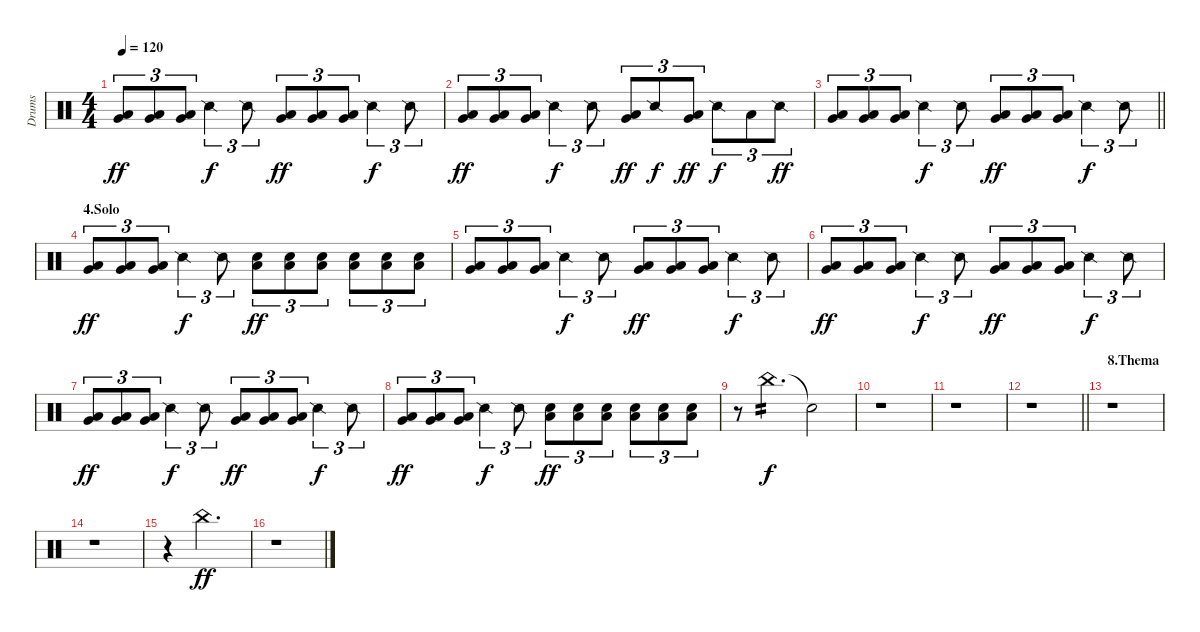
\track ("Drums" "Drums") {instrument percussion}
\staff {score}
\articulation defaults
\ts (4 4)
\tempo 120
\clef neutral
\ks c
("Very Low Tom (hit)" "Low Floor Tom (hit)").8{tu (3 2) dy ff} ("Very Low Tom (hit)" "Low Floor Tom (hit)").8{tu (3 2)} ("Very Low Tom (hit)" "Low Floor Tom (hit)").8{tu (3 2)} "Snare (side stick) 2".4{tu (3 2) dy f} "Snare (side stick) 2".8{tu (3 2)} ("Very Low Tom (hit)" "Low Floor Tom (hit)").8{tu (3 2) dy ff} ("Very Low Tom (hit)" "Low Floor Tom (hit)").8{tu (3 2)} ("Very Low Tom (hit)" "Low Floor Tom (hit)").8{tu (3 2)} "Snare (side stick) 2".4{tu (3 2) dy f} "Snare (side stick) 2".8{tu (3 2)} |
("Very Low Tom (hit)" "Low Floor Tom (hit)").8{tu (3 2) dy ff} ("Very Low Tom (hit)" "Low Floor Tom (hit)").8{tu (3 2)} ("Very Low Tom (hit)" "Low Floor Tom (hit)").8{tu (3 2)} "Snare (side stick) 2".4{tu (3 2) dy f} "Snare (side stick) 2".8{tu (3 2)} ("Very Low Tom (hit)" "Low Floor Tom (hit)").8{tu (3 2) dy ff} "Snare (side stick) 2".8{tu (3 2) dy f} ("Very Low Tom (hit)" "Low Floor Tom (hit)").8{tu (3 2) dy ff} "Snare (side stick) 2".8{tu (3 2) dy f} "Low Floor Tom (hit)".8{tu (3 2)} "Snare (side stick) 2".8{tu (3 2) dy ff} |
\barLineRight lightlight
("Very Low Tom (hit)" "Low Floor Tom (hit)").8{tu (3 2)} ("Very Low Tom (hit)" "Low Floor Tom (hit)").8{tu (3 2)} ("Very Low Tom (hit)" "Low Floor Tom (hit)").8{tu (3 2)} "Snare (side stick) 2".4{tu (3 2) dy f} "Snare (side stick) 2".8{tu (3 2)} ("Very Low Tom (hit)" "Low Floor Tom (hit)").8{tu (3 2) dy ff} ("Very Low Tom (hit)" "Low Floor Tom (hit)").8{tu (3 2)} ("Very Low Tom (hit)" "Low Floor Tom (hit)").8{tu (3 2)} "Snare (side stick) 2".4{tu (3 2) dy f} "Snare (side stick) 2".8{tu (3 2)} |
\section ("" "4.Solo")
("Very Low Tom (hit)" "Low Floor Tom (hit)").8{tu (3 2) dy ff} ("Very Low Tom (hit)" "Low Floor Tom (hit)").8{tu (3 2)} ("Very Low Tom (hit)" "Low Floor Tom (hit)").8{tu (3 2)} "Snare (side stick) 2".4{tu (3 2) dy f} "Snare (side stick) 2".8{tu (3 2)} ("Electric Snare (hit)" "Low Floor Tom (hit)").8{tu (3 2) dy ff} ("Electric Snare (hit)" "Low Floor Tom (hit)").8{tu (3 2)} ("Electric Snare (hit)" "Low Floor Tom (hit)").8{tu (3 2)} ("Electric Snare (hit)" "Low Floor Tom (hit)").8{tu (3 2)} ("Electric Snare (hit)" "Low Floor Tom (hit)").8{tu (3 2)} ("Electric Snare (hit)" "Low Floor Tom (hit)").8{tu (3 2)} |
("Very Low Tom (hit)" "Low Floor Tom (hit)").8{tu (3 2)} ("Very Low Tom (hit)" "Low Floor Tom (hit)").8{tu (3 2)} ("Very Low Tom (hit)" "Low Floor Tom (hit)").8{tu (3 2)} "Snare (side stick) 2".4{tu (3 2) dy f} "Snare (side stick) 2".8{tu (3 2)} ("Very Low Tom (hit)" "Low Floor Tom (hit)").8{tu (3 2) dy ff} ("Very Low Tom (hit)" "Low Floor Tom (hit)").8{tu (3 2)} ("Very Low Tom (hit)" "Low Floor Tom (hit)").8{tu (3 2)} "Snare (side stick) 2".4{tu (3 2) dy f} "Snare (side stick) 2".8{tu (3 2)} |
("Very Low Tom (hit)" "Low Floor Tom (hit)").8{tu (3 2) dy ff} ("Very Low Tom (hit)" "Low Floor Tom (hit)").8{tu (3 2)} ("Very Low Tom (hit)" "Low Floor Tom (hit)").8{tu (3 2)} "Snare (side stick) 2".4{tu (3 2) dy f} "Snare (side stick) 2".8{tu (3 2)} ("Very Low Tom (hit)" "Low Floor Tom (hit)").8{tu (3 2) dy ff} ("Very Low Tom (hit)" "Low Floor Tom (hit)").8{tu (3 2)} ("Very Low Tom (hit)" "Low Floor Tom (hit)").8{tu (3 2)} "Snare (side stick) 2".4{tu (3 2) dy f} "Snare (side stick) 2".8{tu (3 2)} |
("Very Low Tom (hit)" "Low Floor Tom (hit)").8{tu (3 2) dy ff} ("Very Low Tom (hit)" "Low Floor Tom (hit)").8{tu (3 2)} ("Very Low Tom (hit)" "Low Floor Tom (hit)").8{tu (3 2)} "Snare (side stick) 2".4{tu (3 2) dy f} "Snare (side stick) 2".8{tu (3 2)} ("Very Low Tom (hit)" "Low Floor Tom (hit)").8{tu (3 2) dy ff} ("Very Low Tom (hit)" "Low Floor Tom (hit)").8{tu (3 2)} ("Very Low Tom (hit)" "Low Floor Tom (hit)").8{tu (3 2)} "Snare (side stick) 2".4{tu (3 2) dy f} "Snare (side stick) 2".8{tu (3 2)} |
("Very Low Tom (hit)" "Low Floor Tom (hit)").8{tu (3 2) dy ff} ("Very Low Tom (hit)" "Low Floor Tom (hit)").8{tu (3 2)} ("Very Low Tom (hit)" "Low Floor Tom (hit)").8{tu (3 2)} "Snare (side stick) 2".4{tu (3 2) dy f} "Snare (side stick) 2".8{tu (3 2)} ("Electric Snare (hit)" "Low Floor Tom (hit)").8{tu (3 2) dy ff} ("Electric Snare (hit)" "Low Floor Tom (hit)").8{tu (3 2)} ("Electric Snare (hit)" "Low Floor Tom (hit)").8{tu (3 2)} ("Electric Snare (hit)" "Low Floor Tom (hit)").8{tu (3 2)} ("Electric Snare (hit)" "Low Floor Tom (hit)").8{tu (3 2)} ("Electric Snare (hit)" "Low Floor Tom (hit)").8{tu (3 2)} |
r.8{volume 0} "China (hit)".4{d tp 2 dy f volume 16} "Snare (hit)"{t}.2 |
r.1 |
r.1 |
\barLineRight lightlight
r.1 |
\section ("" "8.Thema")
r.1 |
r.1 |
r.4{volume 0} "China (hit)".2{d dy ff volume 16} |
r.1
